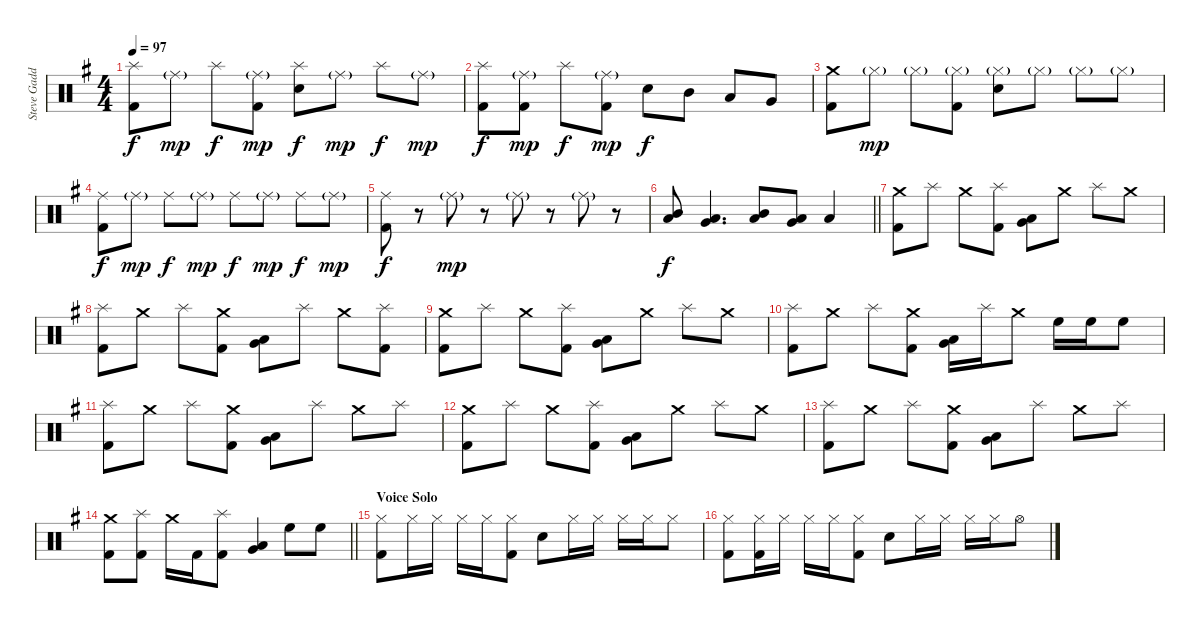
\track ("Steve Gadd" "Steve Gadd") {instrument percussion}
\staff {score}
\articulation defaults
\ts (4 4)
\tempo 97
\clef neutral
\ks g
("Splash (hit)" "Kick (hit) 2").8{dy f} "Ride (middle)"{g}.8{dy mp} "Splash (hit)".8{dy f} ("Ride (middle)"{g} "Kick (hit) 2").8{dy mp} ("Splash (hit)" "Snare (hit) 2").8{dy f} "Ride (middle)"{g}.8{dy mp} "Splash (hit)".8{dy f} "Ride (middle)"{g}.8{dy mp} |
("Splash (hit)" "Kick (hit) 2").8{dy f} ("Ride (middle)"{g} "Kick (hit) 2").8{dy mp} "Splash (hit)".8{dy f} ("Ride (middle)"{g} "Kick (hit) 2").8{dy mp} "Snare (hit) 2".8{dy f} "Mid Tom (hit)".8 "Low Tom (hit)".8 "Very Low Tom (hit)".8 |
("Crash medium (hit)" "Kick (hit) 2").8 "Hi-Hat (closed)"{g}.8{dy mp} "Hi-Hat (closed)"{g}.8 ("Hi-Hat (closed)"{g} "Kick (hit) 2").8 ("Hi-Hat (closed)"{g} "Snare (hit) 2").8 "Hi-Hat (closed)"{g}.8 "Hi-Hat (closed)"{g}.8 "Hi-Hat (closed)"{g}.8 |
("Ride (middle)" "Kick (hit) 2").8{dy f} "Ride (middle)"{g}.8{dy mp} "Ride (middle)".8{dy f} "Ride (middle)"{g}.8{dy mp} "Ride (middle)".8{dy f} "Ride (middle)"{g}.8{dy mp} "Ride (middle)".8{dy f} "Ride (middle)"{g}.8{dy mp} |
("Ride (middle)" "Kick (hit) 2").8{dy f} r.8 "Ride (middle)"{g}.8{dy mp} r.8 "Ride (middle)"{g}.8 r.8 "Ride (middle)"{g}.8 r.8 |
\barLineRight lightlight
("Mid Tom (hit)" "Low Tom (hit)").8{dy f} ("Low Tom (hit)" "Very Low Tom (hit)").4{d} ("Mid Tom (hit)" "Low Tom (hit)").8 ("Low Tom (hit)" "Very Low Tom (hit)").8 "Low Floor Tom (hit)".4 |
("Crash medium (hit)" "Kick (hit) 2").8 "Splash (hit)".8 "Crash medium (hit)".8 ("Splash (hit)" "Kick (hit) 2").8 ("Very Low Tom (hit)" "Low Floor Tom (hit)").8 "Crash medium (hit)".8 "Splash (hit)".8 "Crash medium (hit)".8 |
("Splash (hit)" "Kick (hit) 2").8 "Crash medium (hit)".8 "Splash (hit)".8 ("Crash medium (hit)" "Kick (hit) 2").8 ("Very Low Tom (hit)" "Low Floor Tom (hit)").8 "Splash (hit)".8 "Crash medium (hit)".8 ("Splash (hit)" "Kick (hit) 2").8 |
("Crash medium (hit)" "Kick (hit) 2").8 "Splash (hit)".8 "Crash medium (hit)".8 ("Splash (hit)" "Kick (hit) 2").8 ("Very Low Tom (hit)" "Low Floor Tom (hit)").8 "Crash medium (hit)".8 "Splash (hit)".8 "Crash medium (hit)".8 |
("Splash (hit)" "Kick (hit) 2").8 "Crash medium (hit)".8 "Splash (hit)".8 ("Crash medium (hit)" "Kick (hit) 2").8 ("Very Low Tom (hit)" "Low Floor Tom (hit)").16 "Splash (hit)".16 "Crash medium (hit)".8 "High Floor Tom (hit)".16 "High Floor Tom (hit)".16 "High Floor Tom (hit)".8 |
("Splash (hit)" "Kick (hit) 2").8 "Crash medium (hit)".8 "Splash (hit)".8 ("Crash medium (hit)" "Kick (hit) 2").8 ("Very Low Tom (hit)" "Low Floor Tom (hit)").8 "Splash (hit)".8 "Crash medium (hit)".8 "Splash (hit)".8 |
("Crash medium (hit)" "Kick (hit) 2").8 "Splash (hit)".8 "Crash medium (hit)".8 ("Splash (hit)" "Kick (hit) 2").8 ("Very Low Tom (hit)" "Low Floor Tom (hit)").8 "Crash medium (hit)".8 "Splash (hit)".8 "Crash medium (hit)".8 |
("Splash (hit)" "Kick (hit) 2").8 "Crash medium (hit)".8 "Splash (hit)".8 ("Crash medium (hit)" "Kick (hit) 2").8 ("Very Low Tom (hit)" "Low Floor Tom (hit)").8 "Splash (hit)".8 "Crash medium (hit)".8 "Splash (hit)".8 |
\barLineRight lightlight
("Crash medium (hit)" "Kick (hit) 2").8 ("Splash (hit)" "Kick (hit) 2").8 "Crash medium (hit)".16 "Kick (hit) 2".16 ("Splash (hit)" "Kick (hit) 2").8 ("Very Low Tom (hit)" "Low Floor Tom (hit)").4 "High Floor Tom (hit)".8 "High Floor Tom (hit)".8 |
\section ("" "Voice Solo")
("Hi-Hat (closed)" "Kick (hit) 2").8 "Hi-Hat (closed)".16 "Hi-Hat (closed)".16 "Hi-Hat (closed)".16 "Hi-Hat (closed)".16 ("Hi-Hat (closed)" "Kick (hit) 2").8 "Snare (hit) 2".8 "Hi-Hat (closed)".16 "Hi-Hat (closed)".16 "Hi-Hat (closed)".16 "Hi-Hat (closed)".16 "Hi-Hat (closed)".8 |
("Hi-Hat (closed)" "Kick (hit) 2").8 ("Hi-Hat (closed)" "Kick (hit) 2").16 "Hi-Hat (closed)".16 "Hi-Hat (closed)".16 "Hi-Hat (closed)".16 ("Hi-Hat (closed)" "Kick (hit) 2").8 "Snare (hit) 2".8 "Hi-Hat (closed)".16 "Hi-Hat (closed)".16 "Hi-Hat (closed)".16 "Hi-Hat (closed)".16 "Hi-Hat (open)".8
